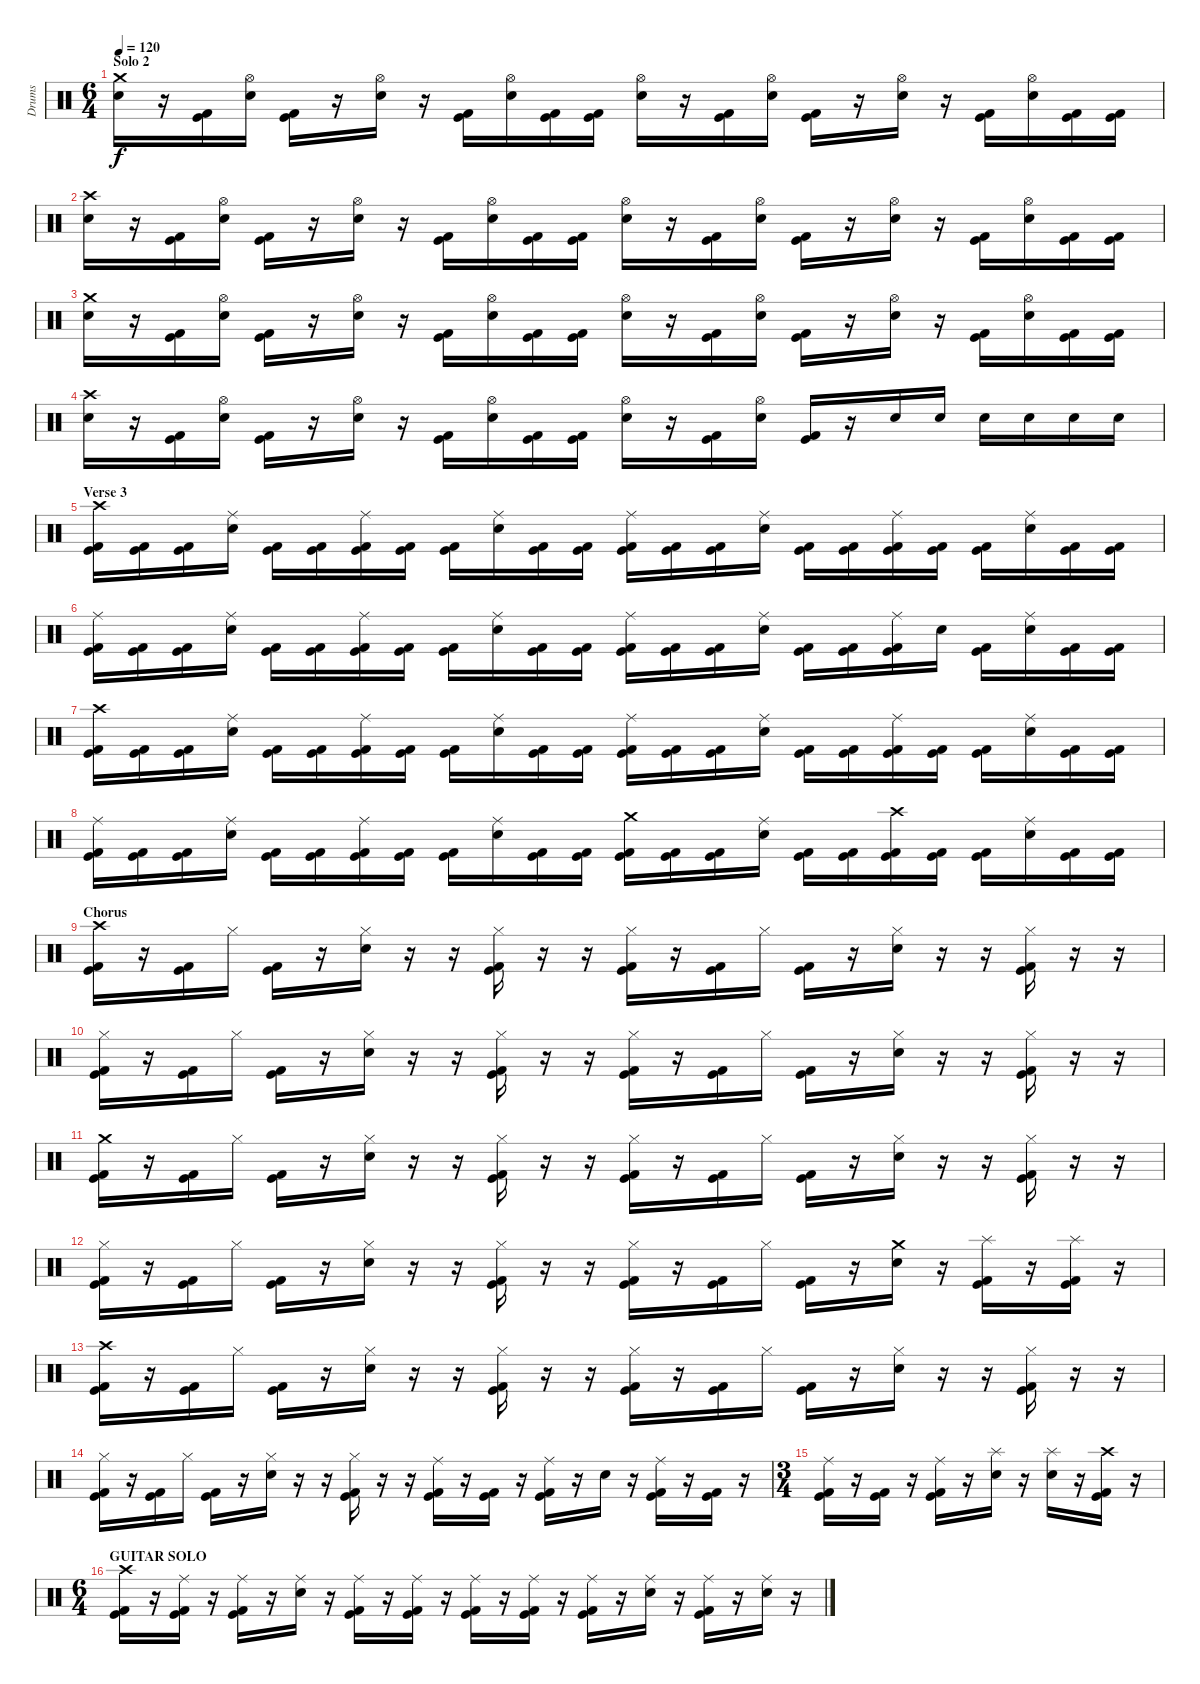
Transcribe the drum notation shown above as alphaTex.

\track ("Drums" "Drums") {instrument percussion}
\staff {score}
\articulation defaults
\ts (6 4)
\section ("" "Solo 2")
\tempo 120
\clef neutral
\ks c
("Crash medium (hit)" "Electric Snare (hit)").16{dy f} r.16 ("Kick (hit) 2" "Kick (hit)").16 ("Hi-Hat (open)" "Electric Snare (hit)").16 ("Kick (hit) 2" "Kick (hit)").16 r.16 ("Hi-Hat (open)" "Electric Snare (hit)").16 r.16 ("Kick (hit) 2" "Kick (hit)").16 ("Hi-Hat (open)" "Electric Snare (hit)").16 ("Kick (hit) 2" "Kick (hit)").16 ("Kick (hit) 2" "Kick (hit)").16 ("Hi-Hat (open)" "Electric Snare (hit)").16 r.16 ("Kick (hit) 2" "Kick (hit)").16 ("Hi-Hat (open)" "Electric Snare (hit)").16 ("Kick (hit) 2" "Kick (hit)").16 r.16 ("Hi-Hat (open)" "Electric Snare (hit)").16 r.16 ("Kick (hit) 2" "Kick (hit)").16 ("Hi-Hat (open)" "Electric Snare (hit)").16 ("Kick (hit) 2" "Kick (hit)").16 ("Kick (hit) 2" "Kick (hit)").16 |
("Crash high (hit)" "Electric Snare (hit)").16 r.16 ("Kick (hit) 2" "Kick (hit)").16 ("Hi-Hat (open)" "Electric Snare (hit)").16 ("Kick (hit) 2" "Kick (hit)").16 r.16 ("Hi-Hat (open)" "Electric Snare (hit)").16 r.16 ("Kick (hit) 2" "Kick (hit)").16 ("Hi-Hat (open)" "Electric Snare (hit)").16 ("Kick (hit) 2" "Kick (hit)").16 ("Kick (hit) 2" "Kick (hit)").16 ("Hi-Hat (open)" "Electric Snare (hit)").16 r.16 ("Kick (hit) 2" "Kick (hit)").16 ("Hi-Hat (open)" "Electric Snare (hit)").16 ("Kick (hit) 2" "Kick (hit)").16 r.16 ("Hi-Hat (open)" "Electric Snare (hit)").16 r.16 ("Kick (hit) 2" "Kick (hit)").16 ("Hi-Hat (open)" "Electric Snare (hit)").16 ("Kick (hit) 2" "Kick (hit)").16 ("Kick (hit) 2" "Kick (hit)").16 |
("Crash medium (hit)" "Electric Snare (hit)").16 r.16 ("Kick (hit) 2" "Kick (hit)").16 ("Hi-Hat (open)" "Electric Snare (hit)").16 ("Kick (hit) 2" "Kick (hit)").16 r.16 ("Hi-Hat (open)" "Electric Snare (hit)").16 r.16 ("Kick (hit) 2" "Kick (hit)").16 ("Hi-Hat (open)" "Electric Snare (hit)").16 ("Kick (hit) 2" "Kick (hit)").16 ("Kick (hit) 2" "Kick (hit)").16 ("Hi-Hat (open)" "Electric Snare (hit)").16 r.16 ("Kick (hit) 2" "Kick (hit)").16 ("Hi-Hat (open)" "Electric Snare (hit)").16 ("Kick (hit) 2" "Kick (hit)").16 r.16 ("Hi-Hat (open)" "Electric Snare (hit)").16 r.16 ("Kick (hit) 2" "Kick (hit)").16 ("Hi-Hat (open)" "Electric Snare (hit)").16 ("Kick (hit) 2" "Kick (hit)").16 ("Kick (hit) 2" "Kick (hit)").16 |
("Crash high (hit)" "Electric Snare (hit)").16 r.16 ("Kick (hit) 2" "Kick (hit)").16 ("Hi-Hat (open)" "Electric Snare (hit)").16 ("Kick (hit) 2" "Kick (hit)").16 r.16 ("Hi-Hat (open)" "Electric Snare (hit)").16 r.16 ("Kick (hit) 2" "Kick (hit)").16 ("Hi-Hat (open)" "Electric Snare (hit)").16 ("Kick (hit) 2" "Kick (hit)").16 ("Kick (hit) 2" "Kick (hit)").16 ("Hi-Hat (open)" "Electric Snare (hit)").16 r.16 ("Kick (hit) 2" "Kick (hit)").16 ("Hi-Hat (open)" "Electric Snare (hit)").16 ("Kick (hit) 2" "Kick (hit)").16 r.16 "Electric Snare (hit)".16 "Electric Snare (hit)".16 "Electric Snare (hit)".16 "Electric Snare (hit)".16 "Electric Snare (hit)".16 "Electric Snare (hit)".16 |
\section ("" "Verse 3")
("Crash high (hit)" "Kick (hit) 2" "Kick (hit)").16 ("Kick (hit) 2" "Kick (hit)").16 ("Kick (hit) 2" "Kick (hit)").16 ("Ride (middle)" "Electric Snare (hit)").16 ("Kick (hit) 2" "Kick (hit)").16 ("Kick (hit) 2" "Kick (hit)").16 ("Ride (middle)" "Kick (hit) 2" "Kick (hit)").16 ("Kick (hit) 2" "Kick (hit)").16 ("Kick (hit) 2" "Kick (hit)").16 ("Ride (middle)" "Electric Snare (hit)").16 ("Kick (hit) 2" "Kick (hit)").16 ("Kick (hit) 2" "Kick (hit)").16 ("Ride (middle)" "Kick (hit) 2" "Kick (hit)").16 ("Kick (hit) 2" "Kick (hit)").16 ("Kick (hit) 2" "Kick (hit)").16 ("Ride (middle)" "Electric Snare (hit)").16 ("Kick (hit) 2" "Kick (hit)").16 ("Kick (hit) 2" "Kick (hit)").16 ("Ride (middle)" "Kick (hit) 2" "Kick (hit)").16 ("Kick (hit) 2" "Kick (hit)").16 ("Kick (hit) 2" "Kick (hit)").16 ("Ride (middle)" "Electric Snare (hit)").16 ("Kick (hit) 2" "Kick (hit)").16 ("Kick (hit) 2" "Kick (hit)").16 |
("Ride (middle)" "Kick (hit) 2" "Kick (hit)").16 ("Kick (hit) 2" "Kick (hit)").16 ("Kick (hit) 2" "Kick (hit)").16 ("Ride (middle)" "Electric Snare (hit)").16 ("Kick (hit) 2" "Kick (hit)").16 ("Kick (hit) 2" "Kick (hit)").16 ("Ride (middle)" "Kick (hit) 2" "Kick (hit)").16 ("Kick (hit) 2" "Kick (hit)").16 ("Kick (hit) 2" "Kick (hit)").16 ("Ride (middle)" "Electric Snare (hit)").16 ("Kick (hit) 2" "Kick (hit)").16 ("Kick (hit) 2" "Kick (hit)").16 ("Ride (middle)" "Kick (hit) 2" "Kick (hit)").16 ("Kick (hit) 2" "Kick (hit)").16 ("Kick (hit) 2" "Kick (hit)").16 ("Ride (middle)" "Electric Snare (hit)").16 ("Kick (hit) 2" "Kick (hit)").16 ("Kick (hit) 2" "Kick (hit)").16 ("Ride (middle)" "Kick (hit) 2" "Kick (hit)").16 "Electric Snare (hit)".16 ("Kick (hit) 2" "Kick (hit)").16 ("Ride (middle)" "Electric Snare (hit)").16 ("Kick (hit) 2" "Kick (hit)").16 ("Kick (hit) 2" "Kick (hit)").16 |
("Crash high (hit)" "Kick (hit) 2" "Kick (hit)").16 ("Kick (hit) 2" "Kick (hit)").16 ("Kick (hit) 2" "Kick (hit)").16 ("Ride (middle)" "Electric Snare (hit)").16 ("Kick (hit) 2" "Kick (hit)").16 ("Kick (hit) 2" "Kick (hit)").16 ("Ride (middle)" "Kick (hit) 2" "Kick (hit)").16 ("Kick (hit) 2" "Kick (hit)").16 ("Kick (hit) 2" "Kick (hit)").16 ("Ride (middle)" "Electric Snare (hit)").16 ("Kick (hit) 2" "Kick (hit)").16 ("Kick (hit) 2" "Kick (hit)").16 ("Ride (middle)" "Kick (hit) 2" "Kick (hit)").16 ("Kick (hit) 2" "Kick (hit)").16 ("Kick (hit) 2" "Kick (hit)").16 ("Ride (middle)" "Electric Snare (hit)").16 ("Kick (hit) 2" "Kick (hit)").16 ("Kick (hit) 2" "Kick (hit)").16 ("Ride (middle)" "Kick (hit) 2" "Kick (hit)").16 ("Kick (hit) 2" "Kick (hit)").16 ("Kick (hit) 2" "Kick (hit)").16 ("Ride (middle)" "Electric Snare (hit)").16 ("Kick (hit) 2" "Kick (hit)").16 ("Kick (hit) 2" "Kick (hit)").16 |
("Ride (middle)" "Kick (hit) 2" "Kick (hit)").16 ("Kick (hit) 2" "Kick (hit)").16 ("Kick (hit) 2" "Kick (hit)").16 ("Ride (middle)" "Electric Snare (hit)").16 ("Kick (hit) 2" "Kick (hit)").16 ("Kick (hit) 2" "Kick (hit)").16 ("Ride (middle)" "Kick (hit) 2" "Kick (hit)").16 ("Kick (hit) 2" "Kick (hit)").16 ("Kick (hit) 2" "Kick (hit)").16 ("Ride (middle)" "Electric Snare (hit)").16 ("Kick (hit) 2" "Kick (hit)").16 ("Kick (hit) 2" "Kick (hit)").16 ("Crash medium (hit)" "Kick (hit) 2" "Kick (hit)").16 ("Kick (hit) 2" "Kick (hit)").16 ("Kick (hit) 2" "Kick (hit)").16 ("Ride (middle)" "Electric Snare (hit)").16 ("Kick (hit) 2" "Kick (hit)").16 ("Kick (hit) 2" "Kick (hit)").16 ("Crash high (hit)" "Kick (hit) 2" "Kick (hit)").16 ("Kick (hit) 2" "Kick (hit)").16 ("Kick (hit) 2" "Kick (hit)").16 ("Ride (middle)" "Electric Snare (hit)").16 ("Kick (hit) 2" "Kick (hit)").16 ("Kick (hit) 2" "Kick (hit)").16 |
\section ("" "Chorus")
("Crash high (hit)" "Kick (hit) 2" "Kick (hit)").16 r.16 ("Kick (hit) 2" "Kick (hit)").16 "Hi-Hat (closed)".16 ("Kick (hit) 2" "Kick (hit)").16 r.16 ("Hi-Hat (closed)" "Electric Snare (hit)").16 r.16 r.16 ("Hi-Hat (closed)" "Kick (hit) 2" "Kick (hit)").16 r.16 r.16 ("Hi-Hat (closed)" "Kick (hit) 2" "Kick (hit)").16 r.16 ("Kick (hit) 2" "Kick (hit)").16 "Hi-Hat (closed)".16 ("Kick (hit) 2" "Kick (hit)").16 r.16 ("Hi-Hat (closed)" "Electric Snare (hit)").16 r.16 r.16 ("Hi-Hat (closed)" "Kick (hit) 2" "Kick (hit)").16 r.16 r.16 |
("Hi-Hat (closed)" "Kick (hit) 2" "Kick (hit)").16 r.16 ("Kick (hit) 2" "Kick (hit)").16 "Hi-Hat (closed)".16 ("Kick (hit) 2" "Kick (hit)").16 r.16 ("Hi-Hat (closed)" "Electric Snare (hit)").16 r.16 r.16 ("Hi-Hat (closed)" "Kick (hit) 2" "Kick (hit)").16 r.16 r.16 ("Hi-Hat (closed)" "Kick (hit) 2" "Kick (hit)").16 r.16 ("Kick (hit) 2" "Kick (hit)").16 "Hi-Hat (closed)".16 ("Kick (hit) 2" "Kick (hit)").16 r.16 ("Hi-Hat (closed)" "Electric Snare (hit)").16 r.16 r.16 ("Hi-Hat (closed)" "Kick (hit) 2" "Kick (hit)").16 r.16 r.16 |
("Crash medium (hit)" "Kick (hit) 2" "Kick (hit)").16 r.16 ("Kick (hit) 2" "Kick (hit)").16 "Hi-Hat (closed)".16 ("Kick (hit) 2" "Kick (hit)").16 r.16 ("Hi-Hat (closed)" "Electric Snare (hit)").16 r.16 r.16 ("Hi-Hat (closed)" "Kick (hit) 2" "Kick (hit)").16 r.16 r.16 ("Hi-Hat (closed)" "Kick (hit) 2" "Kick (hit)").16 r.16 ("Kick (hit) 2" "Kick (hit)").16 "Hi-Hat (closed)".16 ("Kick (hit) 2" "Kick (hit)").16 r.16 ("Hi-Hat (closed)" "Electric Snare (hit)").16 r.16 r.16 ("Hi-Hat (closed)" "Kick (hit) 2" "Kick (hit)").16 r.16 r.16 |
("Hi-Hat (closed)" "Kick (hit) 2" "Kick (hit)").16 r.16 ("Kick (hit) 2" "Kick (hit)").16 "Hi-Hat (closed)".16 ("Kick (hit) 2" "Kick (hit)").16 r.16 ("Hi-Hat (closed)" "Electric Snare (hit)").16 r.16 r.16 ("Hi-Hat (closed)" "Kick (hit) 2" "Kick (hit)").16 r.16 r.16 ("Hi-Hat (closed)" "Kick (hit) 2" "Kick (hit)").16 r.16 ("Kick (hit) 2" "Kick (hit)").16 "Hi-Hat (closed)".16 ("Kick (hit) 2" "Kick (hit)").16 r.16 ("Crash medium (hit)" "Electric Snare (hit)").16 r.16 ("Splash (hit)" "Kick (hit) 2" "Kick (hit)").16 r.16 ("Splash (hit)" "Kick (hit) 2" "Kick (hit)").16 r.16 |
("Crash high (hit)" "Kick (hit) 2" "Kick (hit)").16 r.16 ("Kick (hit) 2" "Kick (hit)").16 "Hi-Hat (closed)".16 ("Kick (hit) 2" "Kick (hit)").16 r.16 ("Hi-Hat (closed)" "Electric Snare (hit)").16 r.16 r.16 ("Hi-Hat (closed)" "Kick (hit) 2" "Kick (hit)").16 r.16 r.16 ("Hi-Hat (closed)" "Kick (hit) 2" "Kick (hit)").16 r.16 ("Kick (hit) 2" "Kick (hit)").16 "Hi-Hat (closed)".16 ("Kick (hit) 2" "Kick (hit)").16 r.16 ("Hi-Hat (closed)" "Electric Snare (hit)").16 r.16 r.16 ("Hi-Hat (closed)" "Kick (hit) 2" "Kick (hit)").16 r.16 r.16 |
("Hi-Hat (closed)" "Kick (hit) 2" "Kick (hit)").16 r.16 ("Kick (hit) 2" "Kick (hit)").16 "Hi-Hat (closed)".16 ("Kick (hit) 2" "Kick (hit)").16 r.16 ("Hi-Hat (closed)" "Electric Snare (hit)").16 r.16 r.16 ("Hi-Hat (closed)" "Kick (hit) 2" "Kick (hit)").16 r.16 r.16 ("Ride (middle)" "Kick (hit) 2" "Kick (hit)").16 r.16 ("Kick (hit)" "Kick (hit) 2").16 r.16 ("Ride (middle)" "Kick (hit)" "Kick (hit) 2").16 r.16 "Electric Snare (hit)".16 r.16 ("Ride (middle)" "Kick (hit)" "Kick (hit) 2").16 r.16 ("Kick (hit)" "Kick (hit) 2").16 r.16 |
\ts (3 4)
("Ride (middle)" "Kick (hit)" "Kick (hit) 2").16 r.16 ("Kick (hit)" "Kick (hit) 2").16 r.16 ("Ride (middle)" "Kick (hit)" "Kick (hit) 2").16 r.16 ("Splash (hit)" "Electric Snare (hit)").16 r.16 ("Splash (hit)" "Electric Snare (hit)").16 r.16 ("Crash high (hit)" "Kick (hit)" "Kick (hit) 2").16 r.16 |
\ts (6 4)
\section ("" "GUITAR SOLO")
("Crash high (hit)" "Kick (hit)" "Kick (hit) 2").16 r.16 ("Ride (middle)" "Kick (hit)" "Kick (hit) 2").16 r.16 ("Ride (middle)" "Kick (hit)" "Kick (hit) 2").16 r.16 ("Ride (middle)" "Electric Snare (hit)").16 r.16 ("Ride (middle)" "Kick (hit)" "Kick (hit) 2").16 r.16 ("Ride (middle)" "Kick (hit)" "Kick (hit) 2").16 r.16 ("Ride (middle)" "Kick (hit)" "Kick (hit) 2").16 r.16 ("Ride (middle)" "Kick (hit)" "Kick (hit) 2").16 r.16 ("Ride (middle)" "Kick (hit)" "Kick (hit) 2").16 r.16 ("Ride (middle)" "Electric Snare (hit)").16 r.16 ("Ride (middle)" "Kick (hit)" "Kick (hit) 2").16 r.16 ("Ride (middle)" "Electric Snare (hit)").16 r.16
